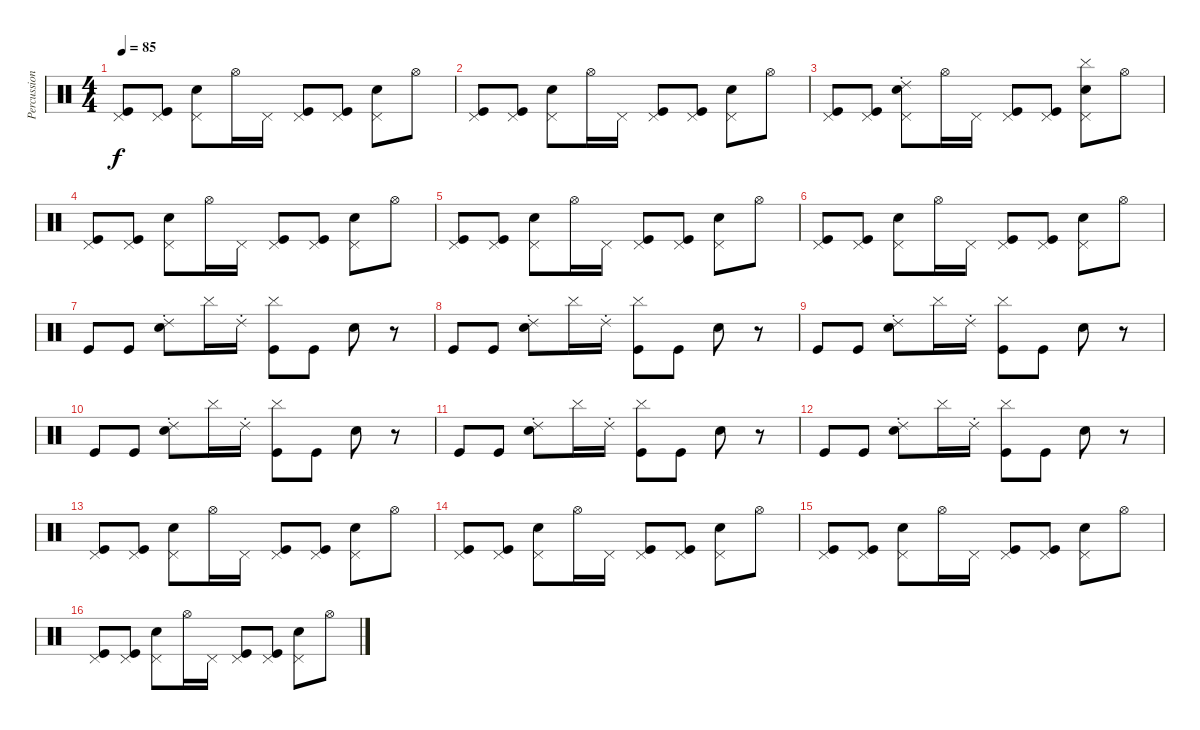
\track ("Percussions" "Percussion") {instrument percussion}
\staff {score}
\articulation defaults
\ts (4 4)
\tempo 85
\clef neutral
\ks c
("Pedal Hi-Hat (hit)" "Kick (hit)").8{dy f} ("Pedal Hi-Hat (hit)" "Kick (hit)").8 ("Pedal Hi-Hat (hit)" "Electric Snare (hit)").8 "Hi-Hat (open)".16 "Pedal Hi-Hat (hit)".16 ("Pedal Hi-Hat (hit)" "Kick (hit)").8 ("Pedal Hi-Hat (hit)" "Kick (hit)").8 ("Pedal Hi-Hat (hit)" "Electric Snare (hit)").8 "Hi-Hat (open)".8 |
("Pedal Hi-Hat (hit)" "Kick (hit)").8 ("Pedal Hi-Hat (hit)" "Kick (hit)").8 ("Pedal Hi-Hat (hit)" "Electric Snare (hit)").8 "Hi-Hat (open)".16 "Pedal Hi-Hat (hit)".16 ("Pedal Hi-Hat (hit)" "Kick (hit)").8 ("Pedal Hi-Hat (hit)" "Kick (hit)").8 ("Pedal Hi-Hat (hit)" "Electric Snare (hit)").8 "Hi-Hat (open)".8 |
("Pedal Hi-Hat (hit)" "Kick (hit)").8{volume 16} ("Pedal Hi-Hat (hit)" "Kick (hit)").8 ("Pedal Hi-Hat (hit)" "Ride (choke) 2" "Electric Snare (hit)").8 "Hi-Hat (open)".16 "Pedal Hi-Hat (hit)".16 ("Pedal Hi-Hat (hit)" "Kick (hit)").8 ("Pedal Hi-Hat (hit)" "Kick (hit)").8 ("Pedal Hi-Hat (hit)" "Cymbal (hit)" "Electric Snare (hit)").8 "Hi-Hat (open)".8 |
("Pedal Hi-Hat (hit)" "Kick (hit)").8 ("Pedal Hi-Hat (hit)" "Kick (hit)").8 ("Pedal Hi-Hat (hit)" "Electric Snare (hit)").8 "Hi-Hat (open)".16 "Pedal Hi-Hat (hit)".16 ("Pedal Hi-Hat (hit)" "Kick (hit)").8 ("Pedal Hi-Hat (hit)" "Kick (hit)").8 ("Pedal Hi-Hat (hit)" "Electric Snare (hit)").8 "Hi-Hat (open)".8 |
("Pedal Hi-Hat (hit)" "Kick (hit)").8 ("Pedal Hi-Hat (hit)" "Kick (hit)").8 ("Pedal Hi-Hat (hit)" "Electric Snare (hit)").8 "Hi-Hat (open)".16 "Pedal Hi-Hat (hit)".16 ("Pedal Hi-Hat (hit)" "Kick (hit)").8 ("Pedal Hi-Hat (hit)" "Kick (hit)").8 ("Pedal Hi-Hat (hit)" "Electric Snare (hit)").8 "Hi-Hat (open)".8 |
("Pedal Hi-Hat (hit)" "Kick (hit)").8 ("Pedal Hi-Hat (hit)" "Kick (hit)").8 ("Pedal Hi-Hat (hit)" "Electric Snare (hit)").8 "Hi-Hat (open)".16 "Pedal Hi-Hat (hit)".16 ("Pedal Hi-Hat (hit)" "Kick (hit)").8 ("Pedal Hi-Hat (hit)" "Kick (hit)").8 ("Pedal Hi-Hat (hit)" "Electric Snare (hit)").8 "Hi-Hat (open)".8 |
"Kick (hit)".8{volume 16} "Kick (hit)".8 ("Electric Snare (hit)" "Ride (choke) 2").8 "Cymbal (hit)".16 "Ride (choke) 2".16 ("Cymbal (hit)" "Kick (hit)").8 "Kick (hit)".8 "Electric Snare (hit)".8 r.8 |
"Kick (hit)".8{volume 16} "Kick (hit)".8 ("Electric Snare (hit)" "Ride (choke) 2").8 "Cymbal (hit)".16 "Ride (choke) 2".16 ("Cymbal (hit)" "Kick (hit)").8 "Kick (hit)".8 "Electric Snare (hit)".8 r.8 |
"Kick (hit)".8{volume 16} "Kick (hit)".8 ("Electric Snare (hit)" "Ride (choke) 2").8 "Cymbal (hit)".16 "Ride (choke) 2".16 ("Cymbal (hit)" "Kick (hit)").8 "Kick (hit)".8 "Electric Snare (hit)".8 r.8 |
"Kick (hit)".8{volume 16} "Kick (hit)".8 ("Electric Snare (hit)" "Ride (choke) 2").8 "Cymbal (hit)".16 "Ride (choke) 2".16 ("Cymbal (hit)" "Kick (hit)").8 "Kick (hit)".8 "Electric Snare (hit)".8 r.8 |
"Kick (hit)".8{volume 16} "Kick (hit)".8 ("Electric Snare (hit)" "Ride (choke) 2").8 "Cymbal (hit)".16 "Ride (choke) 2".16 ("Cymbal (hit)" "Kick (hit)").8 "Kick (hit)".8 "Electric Snare (hit)".8 r.8 |
"Kick (hit)".8{volume 16} "Kick (hit)".8 ("Electric Snare (hit)" "Ride (choke) 2").8 "Cymbal (hit)".16 "Ride (choke) 2".16 ("Cymbal (hit)" "Kick (hit)").8 "Kick (hit)".8 "Electric Snare (hit)".8 r.8 |
("Pedal Hi-Hat (hit)" "Kick (hit)").8{volume 9} ("Pedal Hi-Hat (hit)" "Kick (hit)").8 ("Pedal Hi-Hat (hit)" "Electric Snare (hit)").8 "Hi-Hat (open)".16 "Pedal Hi-Hat (hit)".16 ("Pedal Hi-Hat (hit)" "Kick (hit)").8 ("Pedal Hi-Hat (hit)" "Kick (hit)").8 ("Pedal Hi-Hat (hit)" "Electric Snare (hit)").8 "Hi-Hat (open)".8 |
("Pedal Hi-Hat (hit)" "Kick (hit)").8 ("Pedal Hi-Hat (hit)" "Kick (hit)").8 ("Pedal Hi-Hat (hit)" "Electric Snare (hit)").8 "Hi-Hat (open)".16 "Pedal Hi-Hat (hit)".16 ("Pedal Hi-Hat (hit)" "Kick (hit)").8 ("Pedal Hi-Hat (hit)" "Kick (hit)").8 ("Pedal Hi-Hat (hit)" "Electric Snare (hit)").8 "Hi-Hat (open)".8 |
("Pedal Hi-Hat (hit)" "Kick (hit)").8 ("Pedal Hi-Hat (hit)" "Kick (hit)").8 ("Pedal Hi-Hat (hit)" "Electric Snare (hit)").8 "Hi-Hat (open)".16 "Pedal Hi-Hat (hit)".16 ("Pedal Hi-Hat (hit)" "Kick (hit)").8 ("Pedal Hi-Hat (hit)" "Kick (hit)").8 ("Pedal Hi-Hat (hit)" "Electric Snare (hit)").8 "Hi-Hat (open)".8 |
("Pedal Hi-Hat (hit)" "Kick (hit)").8 ("Pedal Hi-Hat (hit)" "Kick (hit)").8 ("Pedal Hi-Hat (hit)" "Electric Snare (hit)").8 "Hi-Hat (open)".16 "Pedal Hi-Hat (hit)".16 ("Pedal Hi-Hat (hit)" "Kick (hit)").8 ("Pedal Hi-Hat (hit)" "Kick (hit)").8 ("Pedal Hi-Hat (hit)" "Electric Snare (hit)").8 "Hi-Hat (open)".8
